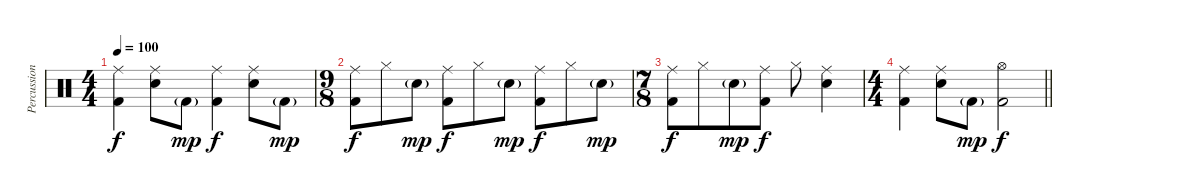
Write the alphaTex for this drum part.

\track ("Percussion" "Percussion") {instrument percussion}
\staff {score}
\articulation defaults
\ts (4 4)
\tempo 100
\clef neutral
\ks c
("Ride (middle)" "Kick (hit) 2").4{dy f} ("Ride (middle)" "Snare (hit) 2").8 "Kick (hit) 2"{g}.8{dy mp} ("Ride (middle)" "Kick (hit) 2").4{dy f} ("Ride (middle)" "Snare (hit) 2").8 "Kick (hit) 2"{g}.8{dy mp} |
\ts (9 8)
("Ride (middle)" "Kick (hit) 2").8{dy f} "Hi-Hat (closed)".8 "Snare (hit) 2"{g}.8{dy mp} ("Ride (middle)" "Kick (hit) 2").8{dy f} "Hi-Hat (closed)".8 "Snare (hit) 2"{g}.8{dy mp} ("Ride (middle)" "Kick (hit) 2").8{dy f} "Hi-Hat (closed)".8 "Snare (hit) 2"{g}.8{dy mp} |
\ts (7 8)
("Ride (middle)" "Kick (hit) 2").8{dy f} "Hi-Hat (closed)".8 "Snare (hit) 2"{g}.8{dy mp} ("Ride (middle)" "Kick (hit) 2").8{dy f} "Hi-Hat (closed)".8 ("Ride (middle)" "Snare (hit) 2").4 |
\ts (4 4)
\barLineRight lightlight
("Ride (middle)" "Kick (hit) 2").4 ("Ride (middle)" "Snare (hit) 2").8 "Kick (hit) 2"{g}.8{dy mp} ("Hi-Hat (open)" "Kick (hit) 2").2{dy f}
